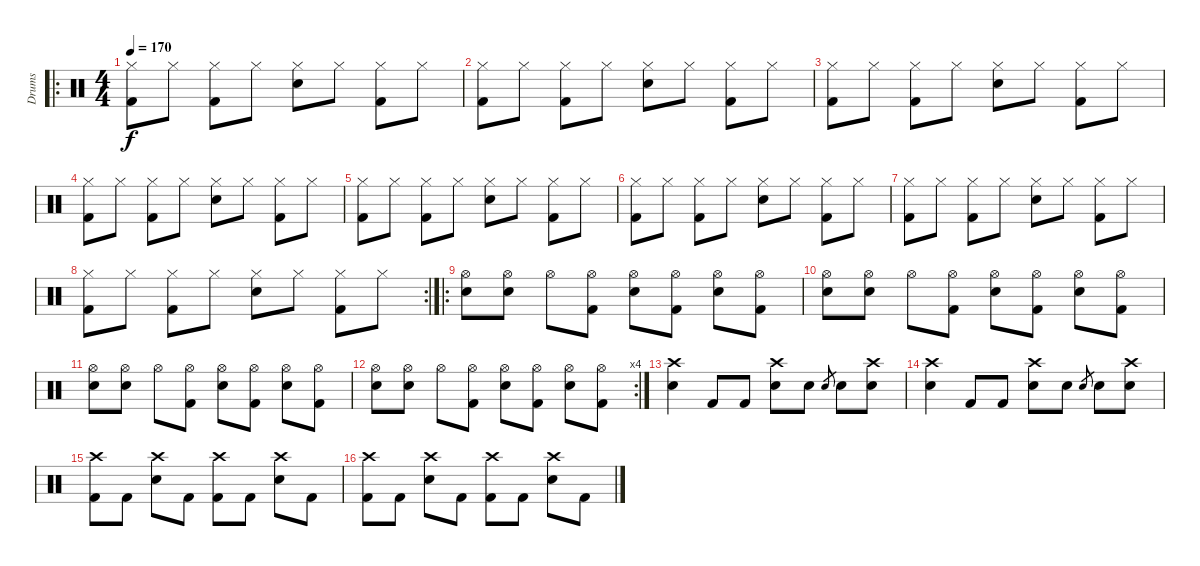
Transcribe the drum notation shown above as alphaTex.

\track ("Drums" "Drums") {instrument percussion}
\staff {score}
\articulation defaults
\ro
\ts (4 4)
\tempo 170
\clef neutral
\ks c
("Hi-Hat (closed)" "Kick (hit) 2").8{dy f} "Hi-Hat (closed)".8 ("Hi-Hat (closed)" "Kick (hit) 2").8 "Hi-Hat (closed)".8 ("Hi-Hat (closed)" "Snare (hit) 2").8 "Hi-Hat (closed)".8 ("Hi-Hat (closed)" "Kick (hit) 2").8 "Hi-Hat (closed)".8 |
("Hi-Hat (closed)" "Kick (hit) 2").8 "Hi-Hat (closed)".8 ("Hi-Hat (closed)" "Kick (hit) 2").8 "Hi-Hat (closed)".8 ("Hi-Hat (closed)" "Snare (hit) 2").8 "Hi-Hat (closed)".8 ("Hi-Hat (closed)" "Kick (hit) 2").8 "Hi-Hat (closed)".8 |
("Hi-Hat (closed)" "Kick (hit) 2").8 "Hi-Hat (closed)".8 ("Hi-Hat (closed)" "Kick (hit) 2").8 "Hi-Hat (closed)".8 ("Hi-Hat (closed)" "Snare (hit) 2").8 "Hi-Hat (closed)".8 ("Hi-Hat (closed)" "Kick (hit) 2").8 "Hi-Hat (closed)".8 |
("Hi-Hat (closed)" "Kick (hit) 2").8 "Hi-Hat (closed)".8 ("Hi-Hat (closed)" "Kick (hit) 2").8 "Hi-Hat (closed)".8 ("Hi-Hat (closed)" "Snare (hit) 2").8 "Hi-Hat (closed)".8 ("Hi-Hat (closed)" "Kick (hit) 2").8 "Hi-Hat (closed)".8 |
("Hi-Hat (closed)" "Kick (hit) 2").8 "Hi-Hat (closed)".8 ("Hi-Hat (closed)" "Kick (hit) 2").8 "Hi-Hat (closed)".8 ("Hi-Hat (closed)" "Snare (hit) 2").8 "Hi-Hat (closed)".8 ("Hi-Hat (closed)" "Kick (hit) 2").8 "Hi-Hat (closed)".8 |
("Hi-Hat (closed)" "Kick (hit) 2").8 "Hi-Hat (closed)".8 ("Hi-Hat (closed)" "Kick (hit) 2").8 "Hi-Hat (closed)".8 ("Hi-Hat (closed)" "Snare (hit) 2").8 "Hi-Hat (closed)".8 ("Hi-Hat (closed)" "Kick (hit) 2").8 "Hi-Hat (closed)".8 |
("Hi-Hat (closed)" "Kick (hit) 2").8 "Hi-Hat (closed)".8 ("Hi-Hat (closed)" "Kick (hit) 2").8 "Hi-Hat (closed)".8 ("Hi-Hat (closed)" "Snare (hit) 2").8 "Hi-Hat (closed)".8 ("Hi-Hat (closed)" "Kick (hit) 2").8 "Hi-Hat (closed)".8 |
\rc 2
("Hi-Hat (closed)" "Kick (hit) 2").8 "Hi-Hat (closed)".8 ("Hi-Hat (closed)" "Kick (hit) 2").8 "Hi-Hat (closed)".8 ("Hi-Hat (closed)" "Snare (hit) 2").8 "Hi-Hat (closed)".8 ("Hi-Hat (closed)" "Kick (hit) 2").8 "Hi-Hat (closed)".8 |
\ro
("Hi-Hat (open)" "Snare (hit) 2").8 ("Hi-Hat (open)" "Snare (hit) 2").8 "Hi-Hat (open)".8 ("Hi-Hat (open)" "Kick (hit) 2").8 ("Hi-Hat (open)" "Snare (hit) 2").8 ("Hi-Hat (open)" "Kick (hit) 2").8 ("Hi-Hat (open)" "Snare (hit) 2").8 ("Hi-Hat (open)" "Kick (hit) 2").8 |
("Hi-Hat (open)" "Snare (hit) 2").8 ("Hi-Hat (open)" "Snare (hit) 2").8 "Hi-Hat (open)".8 ("Hi-Hat (open)" "Kick (hit) 2").8 ("Hi-Hat (open)" "Snare (hit) 2").8 ("Hi-Hat (open)" "Kick (hit) 2").8 ("Hi-Hat (open)" "Snare (hit) 2").8 ("Hi-Hat (open)" "Kick (hit) 2").8 |
("Hi-Hat (open)" "Snare (hit) 2").8 ("Hi-Hat (open)" "Snare (hit) 2").8 "Hi-Hat (open)".8 ("Hi-Hat (open)" "Kick (hit) 2").8 ("Hi-Hat (open)" "Snare (hit) 2").8 ("Hi-Hat (open)" "Kick (hit) 2").8 ("Hi-Hat (open)" "Snare (hit) 2").8 ("Hi-Hat (open)" "Kick (hit) 2").8 |
\rc 4
("Hi-Hat (open)" "Snare (hit) 2").8 ("Hi-Hat (open)" "Snare (hit) 2").8 "Hi-Hat (open)".8 ("Hi-Hat (open)" "Kick (hit) 2").8 ("Hi-Hat (open)" "Snare (hit) 2").8 ("Hi-Hat (open)" "Kick (hit) 2").8 ("Hi-Hat (open)" "Snare (hit) 2").8 ("Hi-Hat (open)" "Kick (hit) 2").8 |
("Crash high (hit)" "Snare (hit) 2").4 "Kick (hit) 2".8 "Kick (hit) 2".8 ("Crash high (hit)" "Snare (hit) 2").8 "Snare (hit) 2".8 "Snare (hit) 2".8{gr} "Snare (hit) 2".8 ("Crash high (hit)" "Snare (hit) 2").8 |
("Crash high (hit)" "Snare (hit) 2").4 "Kick (hit) 2".8 "Kick (hit) 2".8 ("Crash high (hit)" "Snare (hit) 2").8 "Snare (hit) 2".8 "Snare (hit) 2".8{gr} "Snare (hit) 2".8 ("Crash high (hit)" "Snare (hit) 2").8 |
("Crash high (hit)" "Kick (hit) 2").8 "Kick (hit) 2".8 ("Crash high (hit)" "Snare (hit) 2").8 "Kick (hit) 2".8 ("Crash high (hit)" "Kick (hit) 2").8 "Kick (hit) 2".8 ("Crash high (hit)" "Snare (hit) 2").8 "Kick (hit) 2".8 |
("Crash high (hit)" "Kick (hit) 2").8 "Kick (hit) 2".8 ("Crash high (hit)" "Snare (hit) 2").8 "Kick (hit) 2".8 ("Crash high (hit)" "Kick (hit) 2").8 "Kick (hit) 2".8 ("Crash high (hit)" "Snare (hit) 2").8 "Kick (hit) 2".8
